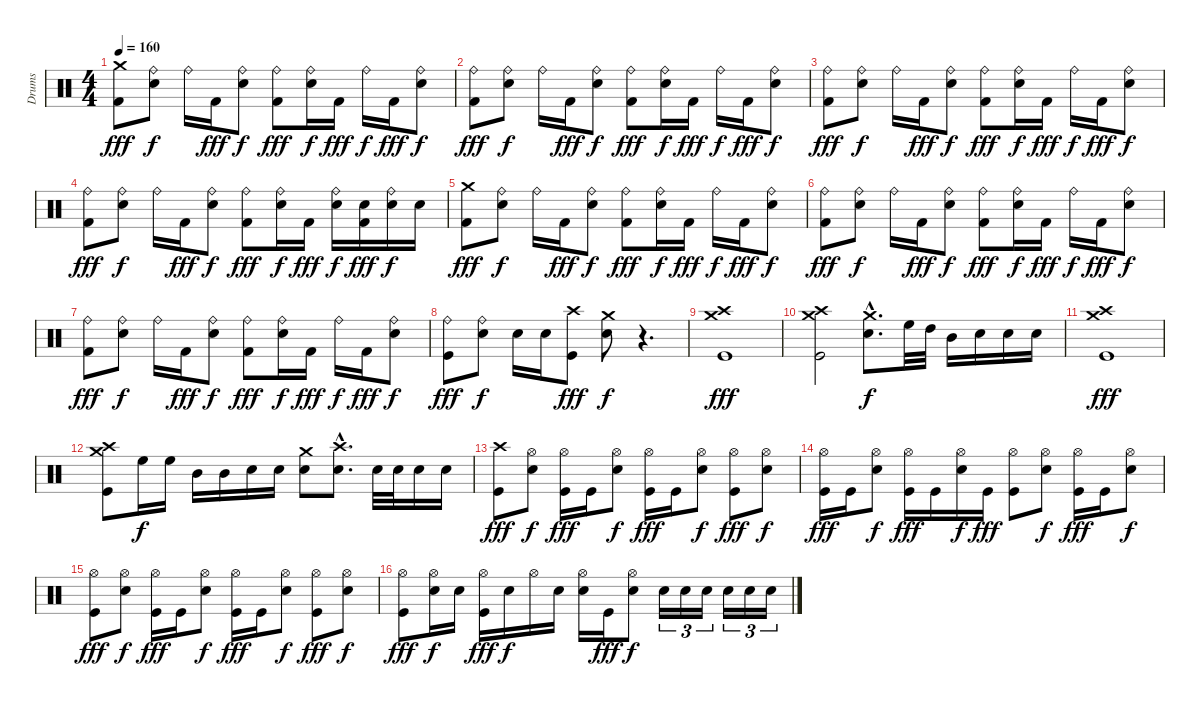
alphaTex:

\track ("Drums" "Drums") {instrument percussion}
\staff {score}
\articulation defaults
\ts (4 4)
\tempo 160
\clef neutral
\ks c
("Crash medium (hit)" "Kick (hit) 2").8{dy fff} ("Ride (bell)" "Electric Snare (hit)").8{dy f} "Ride (bell)".16 "Kick (hit) 2".16{dy fff} ("Ride (bell)" "Electric Snare (hit)").8{dy f} ("Ride (bell)" "Kick (hit) 2").8{dy fff} ("Ride (bell)" "Electric Snare (hit)").16{dy f} "Kick (hit) 2".16{dy fff} "Ride (bell)".16{dy f} "Kick (hit) 2".16{dy fff} ("Ride (bell)" "Electric Snare (hit)").8{dy f} |
("Ride (bell)" "Kick (hit) 2").8{dy fff} ("Ride (bell)" "Electric Snare (hit)").8{dy f} "Ride (bell)".16 "Kick (hit) 2".16{dy fff} ("Ride (bell)" "Electric Snare (hit)").8{dy f} ("Ride (bell)" "Kick (hit) 2").8{dy fff} ("Ride (bell)" "Electric Snare (hit)").16{dy f} "Kick (hit) 2".16{dy fff} "Ride (bell)".16{dy f} "Kick (hit) 2".16{dy fff} ("Ride (bell)" "Electric Snare (hit)").8{dy f} |
("Ride (bell)" "Kick (hit) 2").8{dy fff} ("Ride (bell)" "Electric Snare (hit)").8{dy f} "Ride (bell)".16 "Kick (hit) 2".16{dy fff} ("Ride (bell)" "Electric Snare (hit)").8{dy f} ("Ride (bell)" "Kick (hit) 2").8{dy fff} ("Ride (bell)" "Electric Snare (hit)").16{dy f} "Kick (hit) 2".16{dy fff} "Ride (bell)".16{dy f} "Kick (hit) 2".16{dy fff} ("Ride (bell)" "Electric Snare (hit)").8{dy f} |
("Ride (bell)" "Kick (hit) 2").8{dy fff} ("Ride (bell)" "Electric Snare (hit)").8{dy f} "Ride (bell)".16 "Kick (hit) 2".16{dy fff} ("Ride (bell)" "Electric Snare (hit)").8{dy f} ("Ride (bell)" "Kick (hit) 2").8{dy fff} ("Ride (bell)" "Electric Snare (hit)").16{dy f} "Kick (hit) 2".16{dy fff} ("Ride (bell)" "Electric Snare (hit)").16{dy f} ("Electric Snare (hit)" "Kick (hit) 2").16{dy fff} ("Ride (bell)" "Electric Snare (hit)").16{dy f} "Electric Snare (hit)".16 |
("Crash medium (hit)" "Kick (hit) 2").8{dy fff} ("Ride (bell)" "Electric Snare (hit)").8{dy f} "Ride (bell)".16 "Kick (hit) 2".16{dy fff} ("Ride (bell)" "Electric Snare (hit)").8{dy f} ("Ride (bell)" "Kick (hit) 2").8{dy fff} ("Ride (bell)" "Electric Snare (hit)").16{dy f} "Kick (hit) 2".16{dy fff} "Ride (bell)".16{dy f} "Kick (hit) 2".16{dy fff} ("Ride (bell)" "Electric Snare (hit)").8{dy f} |
("Ride (bell)" "Kick (hit) 2").8{dy fff} ("Ride (bell)" "Electric Snare (hit)").8{dy f} "Ride (bell)".16 "Kick (hit) 2".16{dy fff} ("Ride (bell)" "Electric Snare (hit)").8{dy f} ("Ride (bell)" "Kick (hit) 2").8{dy fff} ("Ride (bell)" "Electric Snare (hit)").16{dy f} "Kick (hit) 2".16{dy fff} "Ride (bell)".16{dy f} "Kick (hit) 2".16{dy fff} ("Ride (bell)" "Electric Snare (hit)").8{dy f} |
("Ride (bell)" "Kick (hit) 2").8{dy fff} ("Ride (bell)" "Electric Snare (hit)").8{dy f} "Ride (bell)".16 "Kick (hit) 2".16{dy fff} ("Ride (bell)" "Electric Snare (hit)").8{dy f} ("Ride (bell)" "Kick (hit) 2").8{dy fff} ("Ride (bell)" "Electric Snare (hit)").16{dy f} "Kick (hit) 2".16{dy fff} "Ride (bell)".16{dy f} "Kick (hit) 2".16{dy fff} ("Ride (bell)" "Electric Snare (hit)").8{dy f} |
("Ride (bell)" "Kick (hit)").8{dy fff} ("Ride (bell)" "Electric Snare (hit)").8{dy f} "Electric Snare (hit)".16 "Electric Snare (hit)".16 ("Crash high (hit)" "Kick (hit)").8{dy fff} ("Crash medium (hit)" "Electric Snare (hit)").8{dy f} r.4{d} |
("Crash medium (hit)" "Crash high (hit)" "Kick (hit)").1{dy fff} |
("Crash high (hit)" "Crash medium (hit)" "Kick (hit)").2 ("Crash medium (hit)"{hac} "Electric Snare (hit)"{hac}).8{d dy f} "High Floor Tom (hit)".32 "High Tom (hit)".32 "Mid Tom (hit)".16 "Electric Snare (hit)".16 "Electric Snare (hit)".16 "Electric Snare (hit)".16 |
("Crash medium (hit)" "Crash high (hit)" "Kick (hit)").1{dy fff} |
("Crash medium (hit)" "Crash high (hit)" "Kick (hit)").8 "High Floor Tom (hit)".16{dy f} "High Floor Tom (hit)".16 "Mid Tom (hit)".16 "Mid Tom (hit)".16 "Electric Snare (hit)".16 "Electric Snare (hit)".16 ("Crash medium (hit)" "Electric Snare (hit)").8 ("Crash high (hit)"{hac} "Electric Snare (hit)"{hac}).8{d} "Electric Snare (hit)".32 "Electric Snare (hit)".32 "Electric Snare (hit)".16 "Electric Snare (hit)".16 |
("Crash high (hit)" "Kick (hit)").8{dy fff} ("Hi-Hat (open)" "Electric Snare (hit)").8{dy f} ("Hi-Hat (open)" "Kick (hit)").16{dy fff} "Kick (hit)".16 ("Hi-Hat (open)" "Electric Snare (hit)").8{dy f} ("Hi-Hat (open)" "Kick (hit)").16{dy fff} "Kick (hit)".16 ("Hi-Hat (open)" "Electric Snare (hit)").8{dy f} ("Hi-Hat (open)" "Kick (hit)").8{dy fff} ("Hi-Hat (open)" "Electric Snare (hit)").8{dy f} |
("Hi-Hat (open)" "Kick (hit)").16{dy fff} "Kick (hit)".16 ("Hi-Hat (open)" "Electric Snare (hit)").8{dy f} ("Hi-Hat (open)" "Kick (hit)").16{dy fff} "Kick (hit)".16 ("Hi-Hat (open)" "Electric Snare (hit)").16{dy f} "Kick (hit)".16{dy fff} ("Hi-Hat (open)" "Kick (hit)").8 ("Hi-Hat (open)" "Electric Snare (hit)").8{dy f} ("Hi-Hat (open)" "Kick (hit)").16{dy fff} "Kick (hit)".16 ("Hi-Hat (open)" "Electric Snare (hit)").8{dy f} |
("Hi-Hat (open)" "Kick (hit)").8{dy fff} ("Hi-Hat (open)" "Electric Snare (hit)").8{dy f} ("Hi-Hat (open)" "Kick (hit)").16{dy fff} "Kick (hit)".16 ("Hi-Hat (open)" "Electric Snare (hit)").8{dy f} ("Hi-Hat (open)" "Kick (hit)").16{dy fff} "Kick (hit)".16 ("Hi-Hat (open)" "Electric Snare (hit)").8{dy f} ("Hi-Hat (open)" "Kick (hit)").8{dy fff} ("Hi-Hat (open)" "Electric Snare (hit)").8{dy f} |
("Hi-Hat (open)" "Kick (hit)").8{dy fff} ("Hi-Hat (open)" "Electric Snare (hit)").16{dy f} "Electric Snare (hit)".16 ("Hi-Hat (open)" "Kick (hit)").16{dy fff} "Electric Snare (hit)".16{dy f} "Hi-Hat (open)".16 "Electric Snare (hit)".16 ("Hi-Hat (open)" "Electric Snare (hit)").16 "Kick (hit)".16{dy fff} ("Hi-Hat (open)" "Electric Snare (hit)").8{dy f} "Electric Snare (hit)".16{tu (3 2)} "Electric Snare (hit)".16{tu (3 2)} "Electric Snare (hit)".16{tu (3 2)} "Electric Snare (hit)".16{tu (3 2)} "Electric Snare (hit)".16{tu (3 2)} "Electric Snare (hit)".16{tu (3 2)}
